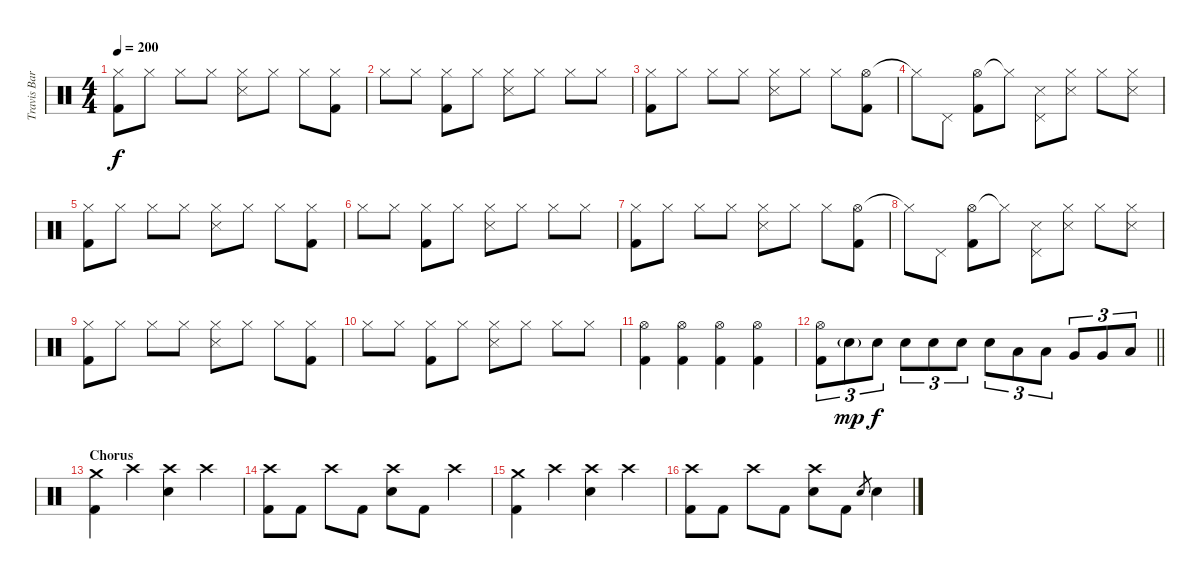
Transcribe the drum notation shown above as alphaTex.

\track ("Travis Barker - Drums" "Travis Bar") {instrument percussion}
\staff {score}
\articulation defaults
\ts (4 4)
\tempo 200
\clef neutral
\ks c
("Hi-Hat (closed)" "Kick (hit) 2").8{dy f} "Hi-Hat (closed)".8 "Hi-Hat (closed)".8 "Hi-Hat (closed)".8 ("Hi-Hat (closed)" "Snare (side stick) 3").8 "Hi-Hat (closed)".8 "Hi-Hat (closed)".8 ("Hi-Hat (closed)" "Kick (hit) 2").8 |
"Hi-Hat (closed)".8 "Hi-Hat (closed)".8 ("Hi-Hat (closed)" "Kick (hit) 2").8 "Hi-Hat (closed)".8 ("Hi-Hat (closed)" "Snare (side stick) 3").8 "Hi-Hat (closed)".8 "Hi-Hat (closed)".8 "Hi-Hat (closed)".8 |
("Hi-Hat (closed)" "Kick (hit) 2").8 "Hi-Hat (closed)".8 "Hi-Hat (closed)".8 "Hi-Hat (closed)".8 ("Hi-Hat (closed)" "Snare (side stick) 3").8 "Hi-Hat (closed)".8 "Hi-Hat (closed)".8 ("Hi-Hat (open)" "Kick (hit) 2").8 |
"Hi-Hat (closed)"{t}.8 "Pedal Hi-Hat (hit)".8 ("Hi-Hat (open)" "Kick (hit) 2").8 "Hi-Hat (closed)"{t}.8 ("Pedal Hi-Hat (hit)" "Snare (side stick) 3").8 ("Hi-Hat (closed)" "Snare (side stick) 3").8 "Hi-Hat (closed)".8 ("Hi-Hat (closed)" "Snare (side stick) 3").8 |
("Hi-Hat (closed)" "Kick (hit) 2").8 "Hi-Hat (closed)".8 "Hi-Hat (closed)".8 "Hi-Hat (closed)".8 ("Hi-Hat (closed)" "Snare (side stick) 3").8 "Hi-Hat (closed)".8 "Hi-Hat (closed)".8 ("Hi-Hat (closed)" "Kick (hit) 2").8 |
"Hi-Hat (closed)".8 "Hi-Hat (closed)".8 ("Hi-Hat (closed)" "Kick (hit) 2").8 "Hi-Hat (closed)".8 ("Hi-Hat (closed)" "Snare (side stick) 3").8 "Hi-Hat (closed)".8 "Hi-Hat (closed)".8 "Hi-Hat (closed)".8 |
("Hi-Hat (closed)" "Kick (hit) 2").8 "Hi-Hat (closed)".8 "Hi-Hat (closed)".8 "Hi-Hat (closed)".8 ("Hi-Hat (closed)" "Snare (side stick) 3").8 "Hi-Hat (closed)".8 "Hi-Hat (closed)".8 ("Hi-Hat (open)" "Kick (hit) 2").8 |
"Hi-Hat (closed)"{t}.8 "Pedal Hi-Hat (hit)".8 ("Hi-Hat (open)" "Kick (hit) 2").8 "Hi-Hat (closed)"{t}.8 ("Pedal Hi-Hat (hit)" "Snare (side stick) 3").8 ("Hi-Hat (closed)" "Snare (side stick) 3").8 "Hi-Hat (closed)".8 ("Hi-Hat (closed)" "Snare (side stick) 3").8 |
("Hi-Hat (closed)" "Kick (hit) 2").8 "Hi-Hat (closed)".8 "Hi-Hat (closed)".8 "Hi-Hat (closed)".8 ("Hi-Hat (closed)" "Snare (side stick) 3").8 "Hi-Hat (closed)".8 "Hi-Hat (closed)".8 ("Hi-Hat (closed)" "Kick (hit) 2").8 |
"Hi-Hat (closed)".8 "Hi-Hat (closed)".8 ("Hi-Hat (closed)" "Kick (hit) 2").8 "Hi-Hat (closed)".8 ("Hi-Hat (closed)" "Snare (side stick) 3").8 "Hi-Hat (closed)".8 "Hi-Hat (closed)".8 "Hi-Hat (closed)".8 |
("Hi-Hat (open)" "Kick (hit) 2").4 ("Hi-Hat (open)" "Kick (hit) 2").4 ("Hi-Hat (open)" "Kick (hit) 2").4 ("Hi-Hat (open)" "Kick (hit) 2").4 |
\barLineRight lightlight
("Hi-Hat (open)" "Kick (hit) 2").8{tu (3 2)} "Electric Snare (hit)"{g}.8{tu (3 2) dy mp} "Electric Snare (hit)".8{tu (3 2) dy f} "Electric Snare (hit)".8{tu (3 2)} "Electric Snare (hit)".8{tu (3 2)} "Electric Snare (hit)".8{tu (3 2)} "Electric Snare (hit)".8{tu (3 2)} "Low Tom (hit)".8{tu (3 2)} "Low Tom (hit)".8{tu (3 2)} "Very Low Tom (hit)".8{tu (3 2)} "Very Low Tom (hit)".8{tu (3 2)} "Low Floor Tom (hit)".8{tu (3 2)} |
\section ("" "Chorus")
("Crash medium (hit)" "Kick (hit) 2").4 "Crash high (hit)".4 ("Crash high (hit)" "Electric Snare (hit)").4 "Crash high (hit)".4 |
("Crash high (hit)" "Kick (hit) 2").8 "Kick (hit) 2".8 "Crash high (hit)".8 "Kick (hit) 2".8 ("Crash high (hit)" "Electric Snare (hit)").8 "Kick (hit) 2".8 "Crash high (hit)".4 |
("Crash medium (hit)" "Kick (hit) 2").4 "Crash high (hit)".4 ("Crash high (hit)" "Electric Snare (hit)").4 "Crash high (hit)".4 |
("Crash high (hit)" "Kick (hit) 2").8 "Kick (hit) 2".8 "Crash high (hit)".8 "Kick (hit) 2".8 ("Crash high (hit)" "Electric Snare (hit)").8 "Kick (hit) 2".8 "Electric Snare (hit)".8{gr} "Electric Snare (hit)".4
